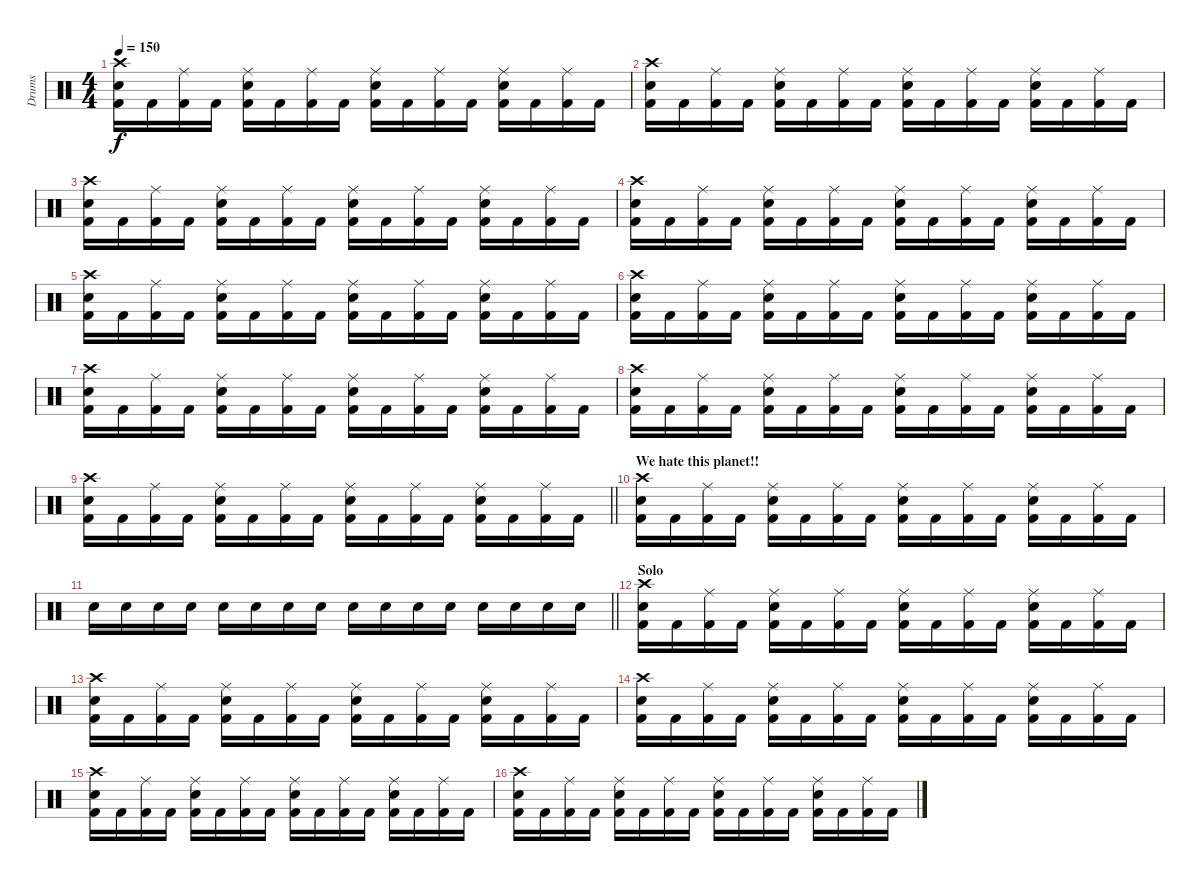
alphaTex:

\track ("Drums" "Drums") {instrument percussion}
\staff {score}
\articulation defaults
\ts (4 4)
\tempo 150
\clef neutral
\ks c
("Kick (hit) 2" "Snare (hit) 2" "Crash high (hit)").16{dy f} "Kick (hit) 2".16 ("Kick (hit) 2" "Ride (middle)").16 "Kick (hit) 2".16 ("Kick (hit) 2" "Snare (hit) 2" "Ride (middle)").16 "Kick (hit) 2".16 ("Kick (hit) 2" "Ride (middle)").16 "Kick (hit) 2".16 ("Kick (hit) 2" "Snare (hit) 2" "Ride (middle)").16 "Kick (hit) 2".16 ("Kick (hit) 2" "Ride (middle)").16 "Kick (hit) 2".16 ("Kick (hit) 2" "Snare (hit) 2" "Ride (middle)").16 "Kick (hit) 2".16 ("Kick (hit) 2" "Ride (middle)").16 "Kick (hit) 2".16 |
("Kick (hit) 2" "Snare (hit) 2" "Crash high (hit)").16 "Kick (hit) 2".16 ("Kick (hit) 2" "Ride (middle)").16 "Kick (hit) 2".16 ("Kick (hit) 2" "Snare (hit) 2" "Ride (middle)").16 "Kick (hit) 2".16 ("Kick (hit) 2" "Ride (middle)").16 "Kick (hit) 2".16 ("Kick (hit) 2" "Snare (hit) 2" "Ride (middle)").16 "Kick (hit) 2".16 ("Kick (hit) 2" "Ride (middle)").16 "Kick (hit) 2".16 ("Kick (hit) 2" "Snare (hit) 2" "Ride (middle)").16 "Kick (hit) 2".16 ("Kick (hit) 2" "Ride (middle)").16 "Kick (hit) 2".16 |
("Kick (hit) 2" "Snare (hit) 2" "Crash high (hit)").16 "Kick (hit) 2".16 ("Kick (hit) 2" "Ride (middle)").16 "Kick (hit) 2".16 ("Kick (hit) 2" "Snare (hit) 2" "Ride (middle)").16 "Kick (hit) 2".16 ("Kick (hit) 2" "Ride (middle)").16 "Kick (hit) 2".16 ("Kick (hit) 2" "Snare (hit) 2" "Ride (middle)").16 "Kick (hit) 2".16 ("Kick (hit) 2" "Ride (middle)").16 "Kick (hit) 2".16 ("Kick (hit) 2" "Snare (hit) 2" "Ride (middle)").16 "Kick (hit) 2".16 ("Kick (hit) 2" "Ride (middle)").16 "Kick (hit) 2".16 |
("Kick (hit) 2" "Snare (hit) 2" "Crash high (hit)").16 "Kick (hit) 2".16 ("Kick (hit) 2" "Ride (middle)").16 "Kick (hit) 2".16 ("Kick (hit) 2" "Snare (hit) 2" "Ride (middle)").16 "Kick (hit) 2".16 ("Kick (hit) 2" "Ride (middle)").16 "Kick (hit) 2".16 ("Kick (hit) 2" "Snare (hit) 2" "Ride (middle)").16 "Kick (hit) 2".16 ("Kick (hit) 2" "Ride (middle)").16 "Kick (hit) 2".16 ("Kick (hit) 2" "Snare (hit) 2" "Ride (middle)").16 "Kick (hit) 2".16 ("Kick (hit) 2" "Ride (middle)").16 "Kick (hit) 2".16 |
("Kick (hit) 2" "Snare (hit) 2" "Crash high (hit)").16 "Kick (hit) 2".16 ("Kick (hit) 2" "Ride (middle)").16 "Kick (hit) 2".16 ("Kick (hit) 2" "Snare (hit) 2" "Ride (middle)").16 "Kick (hit) 2".16 ("Kick (hit) 2" "Ride (middle)").16 "Kick (hit) 2".16 ("Kick (hit) 2" "Snare (hit) 2" "Ride (middle)").16 "Kick (hit) 2".16 ("Kick (hit) 2" "Ride (middle)").16 "Kick (hit) 2".16 ("Kick (hit) 2" "Snare (hit) 2" "Ride (middle)").16 "Kick (hit) 2".16 ("Kick (hit) 2" "Ride (middle)").16 "Kick (hit) 2".16 |
("Kick (hit) 2" "Snare (hit) 2" "Crash high (hit)").16 "Kick (hit) 2".16 ("Kick (hit) 2" "Ride (middle)").16 "Kick (hit) 2".16 ("Kick (hit) 2" "Snare (hit) 2" "Ride (middle)").16 "Kick (hit) 2".16 ("Kick (hit) 2" "Ride (middle)").16 "Kick (hit) 2".16 ("Kick (hit) 2" "Snare (hit) 2" "Ride (middle)").16 "Kick (hit) 2".16 ("Kick (hit) 2" "Ride (middle)").16 "Kick (hit) 2".16 ("Kick (hit) 2" "Snare (hit) 2" "Ride (middle)").16 "Kick (hit) 2".16 ("Kick (hit) 2" "Ride (middle)").16 "Kick (hit) 2".16 |
("Kick (hit) 2" "Snare (hit) 2" "Crash high (hit)").16 "Kick (hit) 2".16 ("Kick (hit) 2" "Ride (middle)").16 "Kick (hit) 2".16 ("Kick (hit) 2" "Snare (hit) 2" "Ride (middle)").16 "Kick (hit) 2".16 ("Kick (hit) 2" "Ride (middle)").16 "Kick (hit) 2".16 ("Kick (hit) 2" "Snare (hit) 2" "Ride (middle)").16 "Kick (hit) 2".16 ("Kick (hit) 2" "Ride (middle)").16 "Kick (hit) 2".16 ("Kick (hit) 2" "Snare (hit) 2" "Ride (middle)").16 "Kick (hit) 2".16 ("Kick (hit) 2" "Ride (middle)").16 "Kick (hit) 2".16 |
("Kick (hit) 2" "Snare (hit) 2" "Crash high (hit)").16 "Kick (hit) 2".16 ("Kick (hit) 2" "Ride (middle)").16 "Kick (hit) 2".16 ("Kick (hit) 2" "Snare (hit) 2" "Ride (middle)").16 "Kick (hit) 2".16 ("Kick (hit) 2" "Ride (middle)").16 "Kick (hit) 2".16 ("Kick (hit) 2" "Snare (hit) 2" "Ride (middle)").16 "Kick (hit) 2".16 ("Kick (hit) 2" "Ride (middle)").16 "Kick (hit) 2".16 ("Kick (hit) 2" "Snare (hit) 2" "Ride (middle)").16 "Kick (hit) 2".16 ("Kick (hit) 2" "Ride (middle)").16 "Kick (hit) 2".16 |
\barLineRight lightlight
("Kick (hit) 2" "Snare (hit) 2" "Crash high (hit)").16 "Kick (hit) 2".16 ("Kick (hit) 2" "Ride (middle)").16 "Kick (hit) 2".16 ("Kick (hit) 2" "Snare (hit) 2" "Ride (middle)").16 "Kick (hit) 2".16 ("Kick (hit) 2" "Ride (middle)").16 "Kick (hit) 2".16 ("Kick (hit) 2" "Snare (hit) 2" "Ride (middle)").16 "Kick (hit) 2".16 ("Kick (hit) 2" "Ride (middle)").16 "Kick (hit) 2".16 ("Kick (hit) 2" "Snare (hit) 2" "Ride (middle)").16 "Kick (hit) 2".16 ("Kick (hit) 2" "Ride (middle)").16 "Kick (hit) 2".16 |
\section ("" "We hate this planet!!")
("Kick (hit) 2" "Snare (hit) 2" "Crash high (hit)").16 "Kick (hit) 2".16 ("Kick (hit) 2" "Ride (middle)").16 "Kick (hit) 2".16 ("Kick (hit) 2" "Snare (hit) 2" "Ride (middle)").16 "Kick (hit) 2".16 ("Kick (hit) 2" "Ride (middle)").16 "Kick (hit) 2".16 ("Kick (hit) 2" "Snare (hit) 2" "Ride (middle)").16 "Kick (hit) 2".16 ("Kick (hit) 2" "Ride (middle)").16 "Kick (hit) 2".16 ("Kick (hit) 2" "Snare (hit) 2" "Ride (middle)").16 "Kick (hit) 2".16 ("Kick (hit) 2" "Ride (middle)").16 "Kick (hit) 2".16 |
\barLineRight lightlight "Snare (hit) 2".16 "Snare (hit) 2".16 "Snare (hit) 2".16 "Snare (hit) 2".16 "Snare (hit) 2".16 "Snare (hit) 2".16 "Snare (hit) 2".16 "Snare (hit) 2".16 "Snare (hit) 2".16 "Snare (hit) 2".16 "Snare (hit) 2".16 "Snare (hit) 2".16 "Snare (hit) 2".16 "Snare (hit) 2".16 "Snare (hit) 2".16 "Snare (hit) 2".16
|
\section ("" "Solo")
("Kick (hit) 2" "Snare (hit) 2" "Crash high (hit)").16 "Kick (hit) 2".16 ("Kick (hit) 2" "Ride (middle)").16 "Kick (hit) 2".16 ("Kick (hit) 2" "Snare (hit) 2" "Ride (middle)").16 "Kick (hit) 2".16 ("Kick (hit) 2" "Ride (middle)").16 "Kick (hit) 2".16 ("Kick (hit) 2" "Snare (hit) 2" "Ride (middle)").16 "Kick (hit) 2".16 ("Kick (hit) 2" "Ride (middle)").16 "Kick (hit) 2".16 ("Kick (hit) 2" "Snare (hit) 2" "Ride (middle)").16 "Kick (hit) 2".16 ("Kick (hit) 2" "Ride (middle)").16 "Kick (hit) 2".16 |
("Kick (hit) 2" "Snare (hit) 2" "Crash high (hit)").16 "Kick (hit) 2".16 ("Kick (hit) 2" "Ride (middle)").16 "Kick (hit) 2".16 ("Kick (hit) 2" "Snare (hit) 2" "Ride (middle)").16 "Kick (hit) 2".16 ("Kick (hit) 2" "Ride (middle)").16 "Kick (hit) 2".16 ("Kick (hit) 2" "Snare (hit) 2" "Ride (middle)").16 "Kick (hit) 2".16 ("Kick (hit) 2" "Ride (middle)").16 "Kick (hit) 2".16 ("Kick (hit) 2" "Snare (hit) 2" "Ride (middle)").16 "Kick (hit) 2".16 ("Kick (hit) 2" "Ride (middle)").16 "Kick (hit) 2".16 |
("Kick (hit) 2" "Snare (hit) 2" "Crash high (hit)").16 "Kick (hit) 2".16 ("Kick (hit) 2" "Ride (middle)").16 "Kick (hit) 2".16 ("Kick (hit) 2" "Snare (hit) 2" "Ride (middle)").16 "Kick (hit) 2".16 ("Kick (hit) 2" "Ride (middle)").16 "Kick (hit) 2".16 ("Kick (hit) 2" "Snare (hit) 2" "Ride (middle)").16 "Kick (hit) 2".16 ("Kick (hit) 2" "Ride (middle)").16 "Kick (hit) 2".16 ("Kick (hit) 2" "Snare (hit) 2" "Ride (middle)").16 "Kick (hit) 2".16 ("Kick (hit) 2" "Ride (middle)").16 "Kick (hit) 2".16 |
("Kick (hit) 2" "Snare (hit) 2" "Crash high (hit)").16 "Kick (hit) 2".16 ("Kick (hit) 2" "Ride (middle)").16 "Kick (hit) 2".16 ("Kick (hit) 2" "Snare (hit) 2" "Ride (middle)").16 "Kick (hit) 2".16 ("Kick (hit) 2" "Ride (middle)").16 "Kick (hit) 2".16 ("Kick (hit) 2" "Snare (hit) 2" "Ride (middle)").16 "Kick (hit) 2".16 ("Kick (hit) 2" "Ride (middle)").16 "Kick (hit) 2".16 ("Kick (hit) 2" "Snare (hit) 2" "Ride (middle)").16 "Kick (hit) 2".16 ("Kick (hit) 2" "Ride (middle)").16 "Kick (hit) 2".16 |
("Kick (hit) 2" "Snare (hit) 2" "Crash high (hit)").16 "Kick (hit) 2".16 ("Kick (hit) 2" "Ride (middle)").16 "Kick (hit) 2".16 ("Kick (hit) 2" "Snare (hit) 2" "Ride (middle)").16 "Kick (hit) 2".16 ("Kick (hit) 2" "Ride (middle)").16 "Kick (hit) 2".16 ("Kick (hit) 2" "Snare (hit) 2" "Ride (middle)").16 "Kick (hit) 2".16 ("Kick (hit) 2" "Ride (middle)").16 "Kick (hit) 2".16 ("Kick (hit) 2" "Snare (hit) 2" "Ride (middle)").16 "Kick (hit) 2".16 ("Kick (hit) 2" "Ride (middle)").16 "Kick (hit) 2".16
